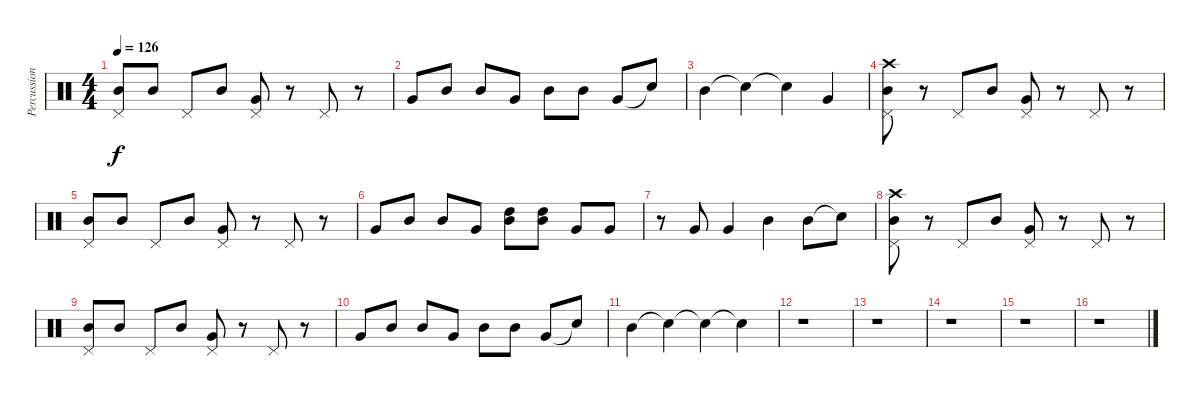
\track ("Percussion" "Percussion") {instrument percussion}
\staff {score}
\articulation defaults
\ts (4 4)
\tempo 126
\clef neutral
\ks c
("Pedal Hi-Hat (hit)" "Mid Tom (hit)").8{dy f} "Mid Tom (hit)".8 "Pedal Hi-Hat (hit)".8 "Mid Tom (hit)".8 ("Pedal Hi-Hat (hit)" "Very Low Tom (hit)").8 r.8 "Pedal Hi-Hat (hit)".8 r.8 |
"Very Low Tom (hit)".8 "Mid Tom (hit)".8 "Mid Tom (hit)".8 "Very Low Tom (hit)".8 "Mid Tom (hit)".8 "Mid Tom (hit)".8 "Very Low Tom (hit)".8 "Snare (hit)"{t}.8 |
"Mid Tom (hit)".4 "Snare (hit)"{t}.4 "Snare (hit)"{t}.4 "Very Low Tom (hit)".4 |
("Pedal Hi-Hat (hit)" "Crash high (hit)" "Mid Tom (hit)").8 r.8 "Pedal Hi-Hat (hit)".8 "Mid Tom (hit)".8 ("Pedal Hi-Hat (hit)" "Very Low Tom (hit)").8 r.8 "Pedal Hi-Hat (hit)".8 r.8 |
("Pedal Hi-Hat (hit)" "Mid Tom (hit)").8 "Mid Tom (hit)".8 "Pedal Hi-Hat (hit)".8 "Mid Tom (hit)".8 ("Pedal Hi-Hat (hit)" "Very Low Tom (hit)").8 r.8 "Pedal Hi-Hat (hit)".8 r.8 |
"Very Low Tom (hit)".8 "Mid Tom (hit)".8 "Mid Tom (hit)".8 "Very Low Tom (hit)".8 ("Mid Tom (hit)" "High Tom (hit)").8 ("Mid Tom (hit)" "High Tom (hit)").8 "Very Low Tom (hit)".8 "Very Low Tom (hit)".8 |
r.8 "Very Low Tom (hit)".8 "Very Low Tom (hit)".4 "Mid Tom (hit)".4 "Mid Tom (hit)".8 "Snare (hit)"{t}.8 |
("Pedal Hi-Hat (hit)" "Crash high (hit)" "Mid Tom (hit)").8 r.8 "Pedal Hi-Hat (hit)".8 "Mid Tom (hit)".8 ("Pedal Hi-Hat (hit)" "Very Low Tom (hit)").8 r.8 "Pedal Hi-Hat (hit)".8 r.8 |
("Pedal Hi-Hat (hit)" "Mid Tom (hit)").8 "Mid Tom (hit)".8 "Pedal Hi-Hat (hit)".8 "Mid Tom (hit)".8 ("Pedal Hi-Hat (hit)" "Very Low Tom (hit)").8 r.8 "Pedal Hi-Hat (hit)".8 r.8 |
"Very Low Tom (hit)".8 "Mid Tom (hit)".8 "Mid Tom (hit)".8 "Very Low Tom (hit)".8 "Mid Tom (hit)".8 "Mid Tom (hit)".8 "Very Low Tom (hit)".8 "Snare (hit)"{t}.8 |
"Mid Tom (hit)".4 "Snare (hit)"{t}.4 "Snare (hit)"{t}.4 "Snare (hit)"{t}.4 |
r.1 |
r.1 |
r.1 |
r.1 |
r.1
